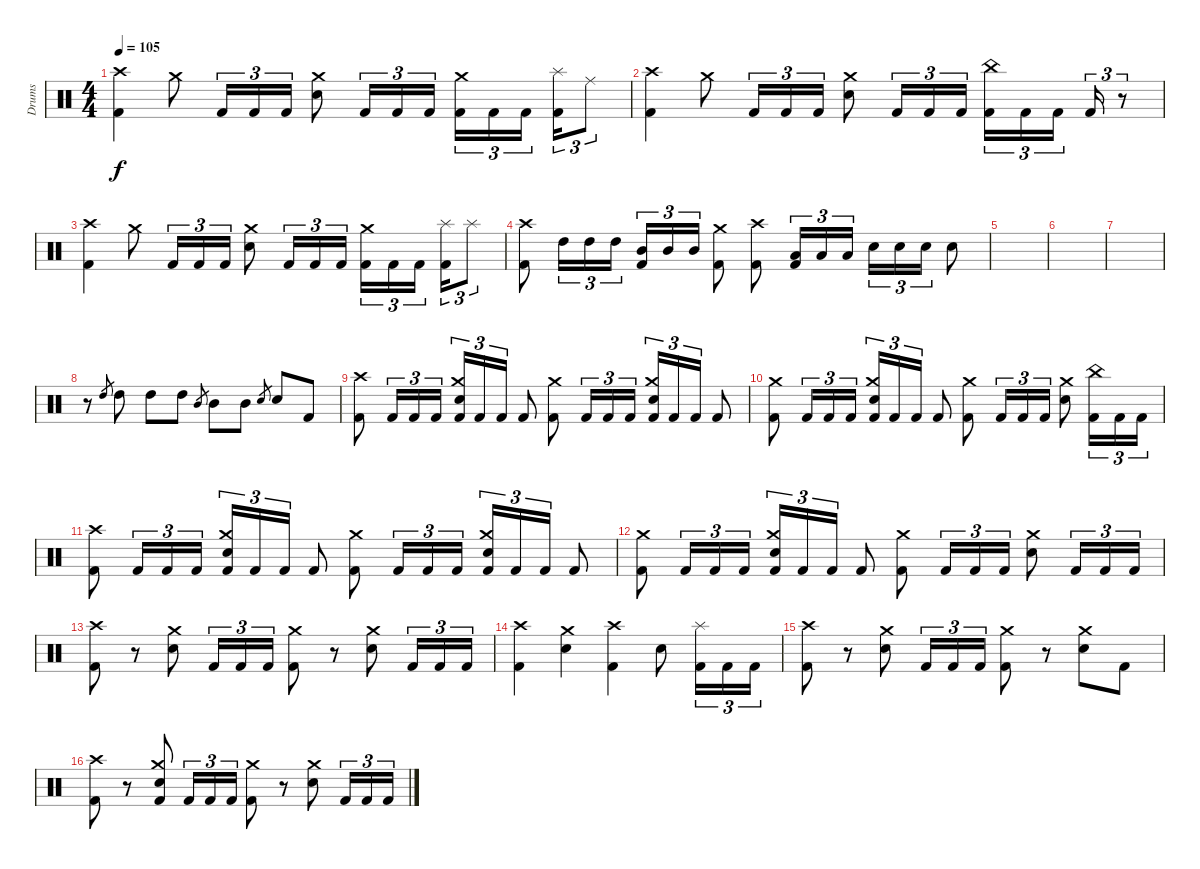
\track ("Drums" "Drums") {instrument percussion}
\staff {score}
\articulation defaults
\ts (4 4)
\tempo 105
\clef neutral
\ks c
("Crash high (hit)" "Kick (hit) 2").4{dy f} "Crash medium (hit)".8 "Kick (hit) 2".16{tu (3 2)} "Kick (hit) 2".16{tu (3 2)} "Kick (hit) 2".16{tu (3 2)} ("Crash medium (hit)" "Electric Snare (hit)").8 "Kick (hit) 2".16{tu (3 2)} "Kick (hit) 2".16{tu (3 2)} "Kick (hit) 2".16{tu (3 2)} ("Crash medium (hit)" "Kick (hit) 2").16{tu (3 2)} "Kick (hit) 2".16{tu (3 2)} "Kick (hit) 2".16{tu (3 2) beam splitsecondary} ("Splash (hit)" "Kick (hit) 2").16{tu (3 2)} "Ride (middle)".8{tu (3 2)} |
("Crash high (hit)" "Kick (hit) 2").4 "Crash medium (hit)".8 "Kick (hit) 2".16{tu (3 2)} "Kick (hit) 2".16{tu (3 2)} "Kick (hit) 2".16{tu (3 2)} ("Crash medium (hit)" "Electric Snare (hit)").8 "Kick (hit) 2".16{tu (3 2)} "Kick (hit) 2".16{tu (3 2)} "Kick (hit) 2".16{tu (3 2)} ("China (hit)" "Kick (hit) 2").16{tu (3 2)} "Kick (hit) 2".16{tu (3 2)} "Kick (hit) 2".16{tu (3 2) beam splitsecondary} "Kick (hit) 2".16{tu (3 2)} r.8{tu (3 2)} |
("Crash high (hit)" "Kick (hit) 2").4 "Crash medium (hit)".8 "Kick (hit) 2".16{tu (3 2)} "Kick (hit) 2".16{tu (3 2)} "Kick (hit) 2".16{tu (3 2)} ("Crash medium (hit)" "Electric Snare (hit)").8 "Kick (hit) 2".16{tu (3 2)} "Kick (hit) 2".16{tu (3 2)} "Kick (hit) 2".16{tu (3 2)} ("Crash medium (hit)" "Kick (hit) 2").16{tu (3 2)} "Kick (hit) 2".16{tu (3 2)} "Kick (hit) 2".16{tu (3 2) beam splitsecondary} ("Splash (hit)" "Kick (hit) 2").16{tu (3 2)} "Splash (hit)".8{tu (3 2)} |
("Crash high (hit)" "Kick (hit) 2").8 "High Tom (hit)".16{tu (3 2)} "High Tom (hit)".16{tu (3 2)} "High Tom (hit)".16{tu (3 2)} ("Mid Tom (hit)" "Kick (hit) 2").16{tu (3 2)} "Mid Tom (hit)".16{tu (3 2)} "Mid Tom (hit)".16{tu (3 2)} ("Crash medium (hit)" "Kick (hit) 2").8 ("Crash high (hit)" "Kick (hit) 2").8 ("Low Tom (hit)" "Kick (hit) 2").16{tu (3 2)} "Low Tom (hit)".16{tu (3 2)} "Low Tom (hit)".16{tu (3 2)} "Electric Snare (hit)".16{tu (3 2)} "Electric Snare (hit)".16{tu (3 2)} "Electric Snare (hit)".16{tu (3 2)} "Electric Snare (hit)".8 |
|
|
|
r.8 "High Tom (hit)".8{gr} "High Tom (hit)".8 "High Tom (hit)".8 "High Tom (hit)".8 "Mid Tom (hit)".8{gr} "Mid Tom (hit)".8 "Mid Tom (hit)".8 "Electric Snare (hit)".8{gr} "Electric Snare (hit)".8 "Kick (hit) 2".8 |
("Crash high (hit)" "Kick (hit) 2").8 "Kick (hit) 2".16{tu (3 2)} "Kick (hit) 2".16{tu (3 2)} "Kick (hit) 2".16{tu (3 2)} ("Crash medium (hit)" "Electric Snare (hit)" "Kick (hit) 2").16{tu (3 2)} "Kick (hit) 2".16{tu (3 2)} "Kick (hit) 2".16{tu (3 2)} "Kick (hit) 2".8 ("Crash medium (hit)" "Kick (hit) 2").8 "Kick (hit) 2".16{tu (3 2)} "Kick (hit) 2".16{tu (3 2)} "Kick (hit) 2".16{tu (3 2)} ("Crash medium (hit)" "Electric Snare (hit)" "Kick (hit) 2").16{tu (3 2)} "Kick (hit) 2".16{tu (3 2)} "Kick (hit) 2".16{tu (3 2)} "Kick (hit) 2".8 |
("Crash medium (hit)" "Kick (hit) 2").8 "Kick (hit) 2".16{tu (3 2)} "Kick (hit) 2".16{tu (3 2)} "Kick (hit) 2".16{tu (3 2)} ("Crash medium (hit)" "Electric Snare (hit)" "Kick (hit) 2").16{tu (3 2)} "Kick (hit) 2".16{tu (3 2)} "Kick (hit) 2".16{tu (3 2)} "Kick (hit) 2".8 ("Crash medium (hit)" "Kick (hit) 2").8 "Kick (hit) 2".16{tu (3 2)} "Kick (hit) 2".16{tu (3 2)} "Kick (hit) 2".16{tu (3 2)} ("Crash medium (hit)" "Electric Snare (hit)").8 ("China (hit)" "Kick (hit) 2").16{tu (3 2)} "Kick (hit) 2".16{tu (3 2)} "Kick (hit) 2".16{tu (3 2)} |
("Crash high (hit)" "Kick (hit) 2").8 "Kick (hit) 2".16{tu (3 2)} "Kick (hit) 2".16{tu (3 2)} "Kick (hit) 2".16{tu (3 2)} ("Crash medium (hit)" "Electric Snare (hit)" "Kick (hit) 2").16{tu (3 2)} "Kick (hit) 2".16{tu (3 2)} "Kick (hit) 2".16{tu (3 2)} "Kick (hit) 2".8 ("Crash medium (hit)" "Kick (hit) 2").8 "Kick (hit) 2".16{tu (3 2)} "Kick (hit) 2".16{tu (3 2)} "Kick (hit) 2".16{tu (3 2)} ("Crash medium (hit)" "Electric Snare (hit)" "Kick (hit) 2").16{tu (3 2)} "Kick (hit) 2".16{tu (3 2)} "Kick (hit) 2".16{tu (3 2)} "Kick (hit) 2".8 |
("Crash medium (hit)" "Kick (hit) 2").8 "Kick (hit) 2".16{tu (3 2)} "Kick (hit) 2".16{tu (3 2)} "Kick (hit) 2".16{tu (3 2)} ("Crash medium (hit)" "Electric Snare (hit)" "Kick (hit) 2").16{tu (3 2)} "Kick (hit) 2".16{tu (3 2)} "Kick (hit) 2".16{tu (3 2)} "Kick (hit) 2".8 ("Crash medium (hit)" "Kick (hit) 2").8 "Kick (hit) 2".16{tu (3 2)} "Kick (hit) 2".16{tu (3 2)} "Kick (hit) 2".16{tu (3 2)} ("Crash medium (hit)" "Electric Snare (hit)").8 "Kick (hit) 2".16{tu (3 2)} "Kick (hit) 2".16{tu (3 2)} "Kick (hit) 2".16{tu (3 2)} |
("Crash high (hit)" "Kick (hit) 2").8 r.8 ("Crash medium (hit)" "Electric Snare (hit)").8 "Kick (hit) 2".16{tu (3 2)} "Kick (hit) 2".16{tu (3 2)} "Kick (hit) 2".16{tu (3 2)} ("Crash medium (hit)" "Kick (hit) 2").8 r.8 ("Crash medium (hit)" "Electric Snare (hit)").8 "Kick (hit) 2".16{tu (3 2)} "Kick (hit) 2".16{tu (3 2)} "Kick (hit) 2".16{tu (3 2)} |
("Crash high (hit)" "Kick (hit) 2").4 ("Crash medium (hit)" "Electric Snare (hit)").4 ("Crash high (hit)" "Kick (hit) 2").4 "Electric Snare (hit)".8 ("Splash (hit)" "Kick (hit) 2").16{tu (3 2)} "Kick (hit) 2".16{tu (3 2)} "Kick (hit) 2".16{tu (3 2)} |
("Crash high (hit)" "Kick (hit) 2").8 r.8 ("Crash medium (hit)" "Electric Snare (hit)").8 "Kick (hit) 2".16{tu (3 2)} "Kick (hit) 2".16{tu (3 2)} "Kick (hit) 2".16{tu (3 2)} ("Crash medium (hit)" "Kick (hit) 2").8 r.8 ("Crash medium (hit)" "Electric Snare (hit)").8 "Kick (hit) 2".8 |
("Crash high (hit)" "Kick (hit) 2").8 r.8 ("Crash medium (hit)" "Electric Snare (hit)" "Kick (hit) 2").8 "Kick (hit) 2".16{tu (3 2)} "Kick (hit) 2".16{tu (3 2)} "Kick (hit) 2".16{tu (3 2)} ("Crash medium (hit)" "Kick (hit) 2").8 r.8 ("Crash medium (hit)" "Electric Snare (hit)").8 "Kick (hit) 2".16{tu (3 2)} "Kick (hit) 2".16{tu (3 2)} "Kick (hit) 2".16{tu (3 2)}
